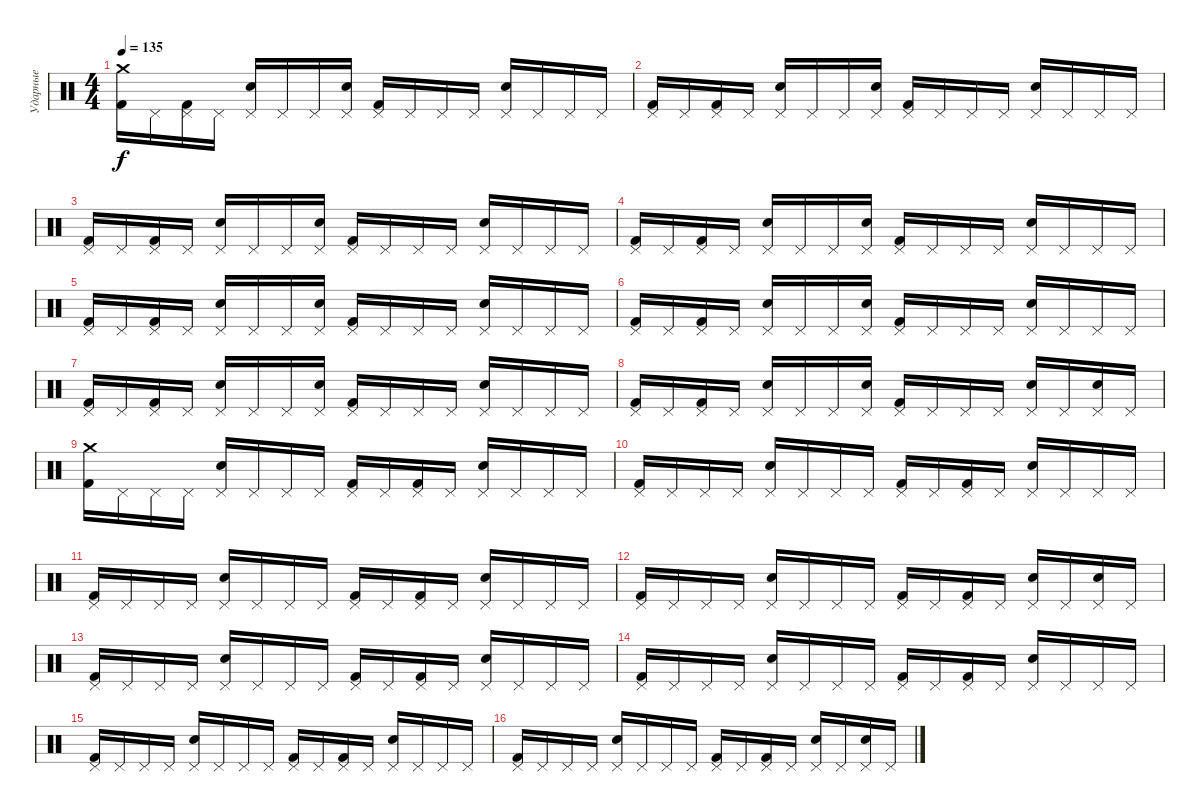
\track ("Ударные" "Ударные") {instrument percussion}
\staff {score}
\articulation defaults
\ts (4 4)
\tempo 135
\clef neutral
\ks c
("Crash medium (hit)" "Kick (hit) 2").16{dy f} "Pedal Hi-Hat (hit)".16 ("Pedal Hi-Hat (hit)" "Kick (hit) 2").16 "Pedal Hi-Hat (hit)".16 ("Pedal Hi-Hat (hit)" "Snare (hit) 2").16 "Pedal Hi-Hat (hit)".16 "Pedal Hi-Hat (hit)".16 ("Pedal Hi-Hat (hit)" "Snare (hit) 2").16 ("Pedal Hi-Hat (hit)" "Kick (hit) 2").16 "Pedal Hi-Hat (hit)".16 "Pedal Hi-Hat (hit)".16 "Pedal Hi-Hat (hit)".16 ("Pedal Hi-Hat (hit)" "Snare (hit) 2").16 "Pedal Hi-Hat (hit)".16 "Pedal Hi-Hat (hit)".16 "Pedal Hi-Hat (hit)".16 |
("Pedal Hi-Hat (hit)" "Kick (hit) 2").16 "Pedal Hi-Hat (hit)".16 ("Pedal Hi-Hat (hit)" "Kick (hit) 2").16 "Pedal Hi-Hat (hit)".16 ("Pedal Hi-Hat (hit)" "Snare (hit) 2").16 "Pedal Hi-Hat (hit)".16 "Pedal Hi-Hat (hit)".16 ("Pedal Hi-Hat (hit)" "Snare (hit) 2").16 ("Pedal Hi-Hat (hit)" "Kick (hit) 2").16 "Pedal Hi-Hat (hit)".16 "Pedal Hi-Hat (hit)".16 "Pedal Hi-Hat (hit)".16 ("Pedal Hi-Hat (hit)" "Snare (hit) 2").16 "Pedal Hi-Hat (hit)".16 "Pedal Hi-Hat (hit)".16 "Pedal Hi-Hat (hit)".16 |
("Pedal Hi-Hat (hit)" "Kick (hit) 2").16 "Pedal Hi-Hat (hit)".16 ("Pedal Hi-Hat (hit)" "Kick (hit) 2").16 "Pedal Hi-Hat (hit)".16 ("Pedal Hi-Hat (hit)" "Snare (hit) 2").16 "Pedal Hi-Hat (hit)".16 "Pedal Hi-Hat (hit)".16 ("Pedal Hi-Hat (hit)" "Snare (hit) 2").16 ("Pedal Hi-Hat (hit)" "Kick (hit) 2").16 "Pedal Hi-Hat (hit)".16 "Pedal Hi-Hat (hit)".16 "Pedal Hi-Hat (hit)".16 ("Pedal Hi-Hat (hit)" "Snare (hit) 2").16 "Pedal Hi-Hat (hit)".16 "Pedal Hi-Hat (hit)".16 "Pedal Hi-Hat (hit)".16 |
("Pedal Hi-Hat (hit)" "Kick (hit) 2").16 "Pedal Hi-Hat (hit)".16 ("Pedal Hi-Hat (hit)" "Kick (hit) 2").16 "Pedal Hi-Hat (hit)".16 ("Pedal Hi-Hat (hit)" "Snare (hit) 2").16 "Pedal Hi-Hat (hit)".16 "Pedal Hi-Hat (hit)".16 ("Pedal Hi-Hat (hit)" "Snare (hit) 2").16 ("Pedal Hi-Hat (hit)" "Kick (hit) 2").16 "Pedal Hi-Hat (hit)".16 "Pedal Hi-Hat (hit)".16 "Pedal Hi-Hat (hit)".16 ("Pedal Hi-Hat (hit)" "Snare (hit) 2").16 "Pedal Hi-Hat (hit)".16 "Pedal Hi-Hat (hit)".16 "Pedal Hi-Hat (hit)".16 |
("Pedal Hi-Hat (hit)" "Kick (hit) 2").16 "Pedal Hi-Hat (hit)".16 ("Pedal Hi-Hat (hit)" "Kick (hit) 2").16 "Pedal Hi-Hat (hit)".16 ("Pedal Hi-Hat (hit)" "Snare (hit) 2").16 "Pedal Hi-Hat (hit)".16 "Pedal Hi-Hat (hit)".16 ("Pedal Hi-Hat (hit)" "Snare (hit) 2").16 ("Pedal Hi-Hat (hit)" "Kick (hit) 2").16 "Pedal Hi-Hat (hit)".16 "Pedal Hi-Hat (hit)".16 "Pedal Hi-Hat (hit)".16 ("Pedal Hi-Hat (hit)" "Snare (hit) 2").16 "Pedal Hi-Hat (hit)".16 "Pedal Hi-Hat (hit)".16 "Pedal Hi-Hat (hit)".16 |
("Pedal Hi-Hat (hit)" "Kick (hit) 2").16 "Pedal Hi-Hat (hit)".16 ("Pedal Hi-Hat (hit)" "Kick (hit) 2").16 "Pedal Hi-Hat (hit)".16 ("Pedal Hi-Hat (hit)" "Snare (hit) 2").16 "Pedal Hi-Hat (hit)".16 "Pedal Hi-Hat (hit)".16 ("Pedal Hi-Hat (hit)" "Snare (hit) 2").16 ("Pedal Hi-Hat (hit)" "Kick (hit) 2").16 "Pedal Hi-Hat (hit)".16 "Pedal Hi-Hat (hit)".16 "Pedal Hi-Hat (hit)".16 ("Pedal Hi-Hat (hit)" "Snare (hit) 2").16 "Pedal Hi-Hat (hit)".16 "Pedal Hi-Hat (hit)".16 "Pedal Hi-Hat (hit)".16 |
("Pedal Hi-Hat (hit)" "Kick (hit) 2").16 "Pedal Hi-Hat (hit)".16 ("Pedal Hi-Hat (hit)" "Kick (hit) 2").16 "Pedal Hi-Hat (hit)".16 ("Pedal Hi-Hat (hit)" "Snare (hit) 2").16 "Pedal Hi-Hat (hit)".16 "Pedal Hi-Hat (hit)".16 ("Pedal Hi-Hat (hit)" "Snare (hit) 2").16 ("Pedal Hi-Hat (hit)" "Kick (hit) 2").16 "Pedal Hi-Hat (hit)".16 "Pedal Hi-Hat (hit)".16 "Pedal Hi-Hat (hit)".16 ("Pedal Hi-Hat (hit)" "Snare (hit) 2").16 "Pedal Hi-Hat (hit)".16 "Pedal Hi-Hat (hit)".16 "Pedal Hi-Hat (hit)".16 |
("Pedal Hi-Hat (hit)" "Kick (hit) 2").16 "Pedal Hi-Hat (hit)".16 ("Pedal Hi-Hat (hit)" "Kick (hit) 2").16 "Pedal Hi-Hat (hit)".16 ("Pedal Hi-Hat (hit)" "Snare (hit) 2").16 "Pedal Hi-Hat (hit)".16 "Pedal Hi-Hat (hit)".16 ("Pedal Hi-Hat (hit)" "Snare (hit) 2").16 ("Pedal Hi-Hat (hit)" "Kick (hit) 2").16 "Pedal Hi-Hat (hit)".16 "Pedal Hi-Hat (hit)".16 "Pedal Hi-Hat (hit)".16 ("Pedal Hi-Hat (hit)" "Snare (hit) 2").16 "Pedal Hi-Hat (hit)".16 ("Pedal Hi-Hat (hit)" "Snare (hit) 2").16 "Pedal Hi-Hat (hit)".16 |
("Crash medium (hit)" "Kick (hit) 2").16 "Pedal Hi-Hat (hit)".16 "Pedal Hi-Hat (hit)".16 "Pedal Hi-Hat (hit)".16 ("Pedal Hi-Hat (hit)" "Snare (hit) 2").16 "Pedal Hi-Hat (hit)".16 "Pedal Hi-Hat (hit)".16 "Pedal Hi-Hat (hit)".16 ("Pedal Hi-Hat (hit)" "Kick (hit) 2").16 "Pedal Hi-Hat (hit)".16 ("Pedal Hi-Hat (hit)" "Kick (hit) 2").16 "Pedal Hi-Hat (hit)".16 ("Pedal Hi-Hat (hit)" "Snare (hit) 2").16 "Pedal Hi-Hat (hit)".16 "Pedal Hi-Hat (hit)".16 "Pedal Hi-Hat (hit)".16 |
("Pedal Hi-Hat (hit)" "Kick (hit) 2").16 "Pedal Hi-Hat (hit)".16 "Pedal Hi-Hat (hit)".16 "Pedal Hi-Hat (hit)".16 ("Pedal Hi-Hat (hit)" "Snare (hit) 2").16 "Pedal Hi-Hat (hit)".16 "Pedal Hi-Hat (hit)".16 "Pedal Hi-Hat (hit)".16 ("Pedal Hi-Hat (hit)" "Kick (hit) 2").16 "Pedal Hi-Hat (hit)".16 ("Pedal Hi-Hat (hit)" "Kick (hit) 2").16 "Pedal Hi-Hat (hit)".16 ("Pedal Hi-Hat (hit)" "Snare (hit) 2").16 "Pedal Hi-Hat (hit)".16 "Pedal Hi-Hat (hit)".16 "Pedal Hi-Hat (hit)".16 |
("Pedal Hi-Hat (hit)" "Kick (hit) 2").16 "Pedal Hi-Hat (hit)".16 "Pedal Hi-Hat (hit)".16 "Pedal Hi-Hat (hit)".16 ("Pedal Hi-Hat (hit)" "Snare (hit) 2").16 "Pedal Hi-Hat (hit)".16 "Pedal Hi-Hat (hit)".16 "Pedal Hi-Hat (hit)".16 ("Pedal Hi-Hat (hit)" "Kick (hit) 2").16 "Pedal Hi-Hat (hit)".16 ("Pedal Hi-Hat (hit)" "Kick (hit) 2").16 "Pedal Hi-Hat (hit)".16 ("Pedal Hi-Hat (hit)" "Snare (hit) 2").16 "Pedal Hi-Hat (hit)".16 "Pedal Hi-Hat (hit)".16 "Pedal Hi-Hat (hit)".16 |
("Pedal Hi-Hat (hit)" "Kick (hit) 2").16 "Pedal Hi-Hat (hit)".16 "Pedal Hi-Hat (hit)".16 "Pedal Hi-Hat (hit)".16 ("Pedal Hi-Hat (hit)" "Snare (hit) 2").16 "Pedal Hi-Hat (hit)".16 "Pedal Hi-Hat (hit)".16 "Pedal Hi-Hat (hit)".16 ("Pedal Hi-Hat (hit)" "Kick (hit) 2").16 "Pedal Hi-Hat (hit)".16 ("Pedal Hi-Hat (hit)" "Kick (hit) 2").16 "Pedal Hi-Hat (hit)".16 ("Pedal Hi-Hat (hit)" "Snare (hit) 2").16 "Pedal Hi-Hat (hit)".16 ("Pedal Hi-Hat (hit)" "Snare (hit) 2").16 "Pedal Hi-Hat (hit)".16 |
("Pedal Hi-Hat (hit)" "Kick (hit) 2").16 "Pedal Hi-Hat (hit)".16 "Pedal Hi-Hat (hit)".16 "Pedal Hi-Hat (hit)".16 ("Pedal Hi-Hat (hit)" "Snare (hit) 2").16 "Pedal Hi-Hat (hit)".16 "Pedal Hi-Hat (hit)".16 "Pedal Hi-Hat (hit)".16 ("Pedal Hi-Hat (hit)" "Kick (hit) 2").16 "Pedal Hi-Hat (hit)".16 ("Pedal Hi-Hat (hit)" "Kick (hit) 2").16 "Pedal Hi-Hat (hit)".16 ("Pedal Hi-Hat (hit)" "Snare (hit) 2").16 "Pedal Hi-Hat (hit)".16 "Pedal Hi-Hat (hit)".16 "Pedal Hi-Hat (hit)".16 |
("Pedal Hi-Hat (hit)" "Kick (hit) 2").16 "Pedal Hi-Hat (hit)".16 "Pedal Hi-Hat (hit)".16 "Pedal Hi-Hat (hit)".16 ("Pedal Hi-Hat (hit)" "Snare (hit) 2").16 "Pedal Hi-Hat (hit)".16 "Pedal Hi-Hat (hit)".16 "Pedal Hi-Hat (hit)".16 ("Pedal Hi-Hat (hit)" "Kick (hit) 2").16 "Pedal Hi-Hat (hit)".16 ("Pedal Hi-Hat (hit)" "Kick (hit) 2").16 "Pedal Hi-Hat (hit)".16 ("Pedal Hi-Hat (hit)" "Snare (hit) 2").16 "Pedal Hi-Hat (hit)".16 "Pedal Hi-Hat (hit)".16 "Pedal Hi-Hat (hit)".16 |
("Pedal Hi-Hat (hit)" "Kick (hit) 2").16 "Pedal Hi-Hat (hit)".16 "Pedal Hi-Hat (hit)".16 "Pedal Hi-Hat (hit)".16 ("Pedal Hi-Hat (hit)" "Snare (hit) 2").16 "Pedal Hi-Hat (hit)".16 "Pedal Hi-Hat (hit)".16 "Pedal Hi-Hat (hit)".16 ("Pedal Hi-Hat (hit)" "Kick (hit) 2").16 "Pedal Hi-Hat (hit)".16 ("Pedal Hi-Hat (hit)" "Kick (hit) 2").16 "Pedal Hi-Hat (hit)".16 ("Pedal Hi-Hat (hit)" "Snare (hit) 2").16 "Pedal Hi-Hat (hit)".16 "Pedal Hi-Hat (hit)".16 "Pedal Hi-Hat (hit)".16 |
("Pedal Hi-Hat (hit)" "Kick (hit) 2").16 "Pedal Hi-Hat (hit)".16 "Pedal Hi-Hat (hit)".16 "Pedal Hi-Hat (hit)".16 ("Pedal Hi-Hat (hit)" "Snare (hit) 2").16 "Pedal Hi-Hat (hit)".16 "Pedal Hi-Hat (hit)".16 "Pedal Hi-Hat (hit)".16 ("Pedal Hi-Hat (hit)" "Kick (hit) 2").16 "Pedal Hi-Hat (hit)".16 ("Pedal Hi-Hat (hit)" "Kick (hit) 2").16 "Pedal Hi-Hat (hit)".16 ("Pedal Hi-Hat (hit)" "Snare (hit) 2").16 "Pedal Hi-Hat (hit)".16 ("Pedal Hi-Hat (hit)" "Snare (hit) 2").16 "Pedal Hi-Hat (hit)".16
